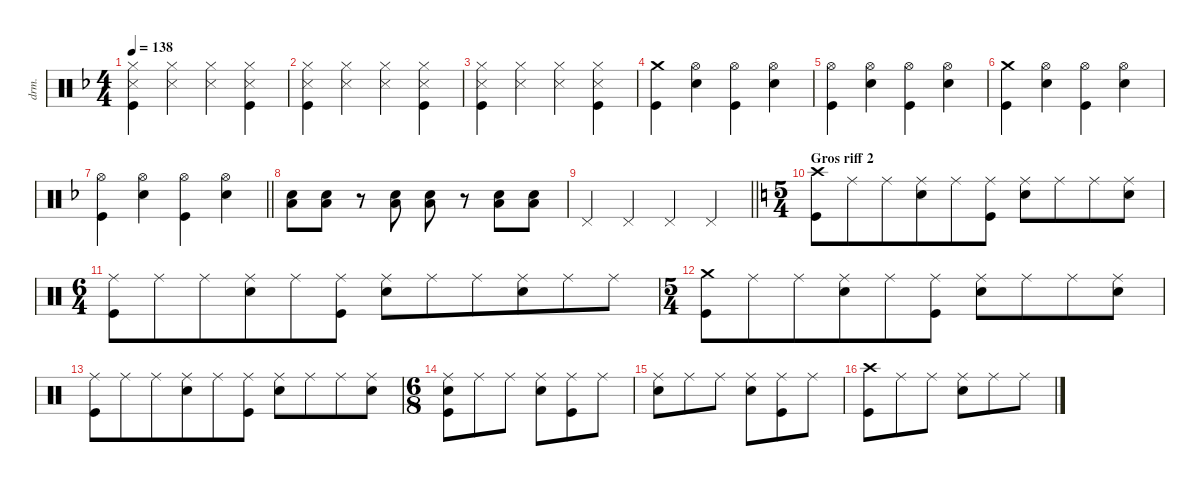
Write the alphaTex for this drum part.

\defaultSystemsLayout 4
\hideDynamics
\bracketExtendMode nobrackets
\track ("Percussions" "drm.") {instrument percussion}
\staff {score}
\articulation defaults
\ts (4 4)
\tempo 138
\clef neutral
\ks dminor
("Hi-Hat (closed)"{acc forcenatural} "Snare (side stick) 3"{acc forcenatural} "Kick (hit)"{acc forcenatural}).4{dy f beam Down} ("Hi-Hat (closed)"{acc forcenatural} "Snare (side stick) 3"{acc forcenatural}).4{beam Down} ("Hi-Hat (closed)"{acc forcenatural} "Snare (side stick) 3"{acc forcenatural}).4{beam Down} ("Hi-Hat (closed)"{acc forcenatural} "Snare (side stick) 3"{acc forcenatural} "Kick (hit)"{acc forcenatural}).4{beam Down} |
("Hi-Hat (closed)"{acc forcenatural} "Snare (side stick) 3"{acc forcenatural} "Kick (hit)"{acc forcenatural}).4{beam Down} ("Hi-Hat (closed)"{acc forcenatural} "Snare (side stick) 3"{acc forcenatural}).4{beam Down} ("Hi-Hat (closed)"{acc forcenatural} "Snare (side stick) 3"{acc forcenatural}).4{beam Down} ("Hi-Hat (closed)"{acc forcenatural} "Snare (side stick) 3"{acc forcenatural} "Kick (hit)"{acc forcenatural}).4{beam Down} |
("Hi-Hat (closed)"{acc forcenatural} "Snare (side stick) 3"{acc forcenatural} "Kick (hit)"{acc forcenatural}).4{beam Down} ("Hi-Hat (closed)"{acc forcenatural} "Snare (side stick) 3"{acc forcenatural}).4{beam Down} ("Hi-Hat (closed)"{acc forcenatural} "Snare (side stick) 3"{acc forcenatural}).4{beam Down} ("Hi-Hat (closed)"{acc forcenatural} "Snare (side stick) 3"{acc forcenatural} "Kick (hit)"{acc forcenatural}).4{beam Down} |
("Crash medium (hit)"{acc forcenatural} "Kick (hit)"{acc forcenatural}).4{beam Down} ("Hi-Hat (open)"{acc forcenatural} "Snare (hit) 2"{acc forcenatural}).4{beam Down} ("Hi-Hat (open)"{acc forcenatural} "Kick (hit)"{acc forcenatural}).4{beam Down} ("Hi-Hat (open)"{acc forcenatural} "Snare (hit) 2"{acc forcenatural}).4{beam Down} |
("Hi-Hat (open)"{acc forcenatural} "Kick (hit)"{acc forcenatural}).4{beam Down} ("Hi-Hat (open)"{acc forcenatural} "Snare (hit) 2"{acc forcenatural}).4{beam Down} ("Hi-Hat (open)"{acc forcenatural} "Kick (hit)"{acc forcenatural}).4{beam Down} ("Hi-Hat (open)"{acc forcenatural} "Snare (hit) 2"{acc forcenatural}).4{beam Down} |
("Crash medium (hit)"{acc forcenatural} "Kick (hit)"{acc forcenatural}).4{beam Down} ("Hi-Hat (open)"{acc forcenatural} "Snare (hit) 2"{acc forcenatural}).4{beam Down} ("Hi-Hat (open)"{acc forcenatural} "Kick (hit)"{acc forcenatural}).4{beam Down} ("Hi-Hat (open)"{acc forcenatural} "Snare (hit) 2"{acc forcenatural}).4{beam Down} |
\barLineRight lightlight
("Hi-Hat (open)"{acc forcenatural} "Kick (hit)"{acc forcenatural}).4{beam Down} ("Hi-Hat (open)"{acc forcenatural} "Snare (hit) 2"{acc forcenatural}).4{beam Down} ("Hi-Hat (open)"{acc forcenatural} "Kick (hit)"{acc forcenatural}).4{beam Down} ("Hi-Hat (open)"{acc forcenatural} "Snare (hit) 2"{acc forcenatural}).4{beam Down} |
("Snare (hit) 2"{acc forcenatural} "Low Tom (hit)"{acc forcenatural}).8{beam Down} ("Snare (hit) 2"{acc forcenatural} "Low Tom (hit)"{acc forcenatural}).8{beam Down} r.8{beam Down} ("Snare (hit) 2"{acc forcenatural} "Low Tom (hit)"{acc forcenatural}).8{beam Down} ("Snare (hit) 2"{acc forcenatural} "Low Tom (hit)"{acc forcenatural}).8{beam Down} r.8{beam Down} ("Snare (hit) 2"{acc forcenatural} "Low Tom (hit)"{acc forcenatural}).8{beam Down} ("Snare (hit) 2"{acc forcenatural} "Low Tom (hit)"{acc forcenatural}).8{beam Down} |
\barLineRight lightlight "Pedal Hi-Hat (hit)"{acc forcenatural}.4{beam Up} "Pedal Hi-Hat (hit)"{acc forcenatural}.4{beam Up} "Pedal Hi-Hat (hit)"{acc forcenatural}.4{beam Up} "Pedal Hi-Hat (hit)"{acc forcenatural}.4{beam Up}
|
\ts (5 4)
\beaming (8 6 4)
\section ("" "Gros riff 2")
\ks aminor
("Crash high (hit)" "Kick (hit)").8{beam Down} "Ride (middle)".8{beam Down} "Ride (middle)".8{beam Down} ("Ride (middle)" "Snare (hit) 2").8{beam Down} "Ride (middle)".8{beam Down} ("Ride (middle)" "Kick (hit)").8{beam Down} ("Ride (middle)" "Snare (hit) 2").8{beam Down} "Ride (middle)".8{beam Down} "Ride (middle)".8{beam Down} ("Ride (middle)" "Snare (hit) 2").8{beam Down} |
\ts (6 4)
\beaming (8 6 6)
("Ride (middle)" "Kick (hit)").8{beam Down} "Ride (middle)".8{beam Down} "Ride (middle)".8{beam Down} ("Ride (middle)" "Snare (hit) 2").8{beam Down} "Ride (middle)".8{beam Down} ("Ride (middle)" "Kick (hit)").8{beam Down} ("Ride (middle)" "Snare (hit) 2").8{beam Down} "Ride (middle)".8{beam Down} "Ride (middle)".8{beam Down} ("Ride (middle)" "Snare (hit) 2").8{beam Down} "Ride (middle)".8{beam Down} "Ride (middle)".8{beam Down} |
\ts (5 4)
\beaming (8 6 4)
("Crash medium (hit)" "Kick (hit)").8{beam Down} "Ride (middle)".8{beam Down} "Ride (middle)".8{beam Down} ("Ride (middle)" "Snare (hit) 2").8{beam Down} "Ride (middle)".8{beam Down} ("Ride (middle)" "Kick (hit)").8{beam Down} ("Ride (middle)" "Snare (hit) 2").8{beam Down} "Ride (middle)".8{beam Down} "Ride (middle)".8{beam Down} ("Ride (middle)" "Snare (hit) 2").8{beam Down} |
("Ride (middle)" "Kick (hit)").8{beam Down} "Ride (middle)".8{beam Down} "Ride (middle)".8{beam Down} ("Ride (middle)" "Snare (hit) 2").8{beam Down} "Ride (middle)".8{beam Down} ("Ride (middle)" "Kick (hit)").8{beam Down} ("Ride (middle)" "Snare (hit) 2").8{beam Down} "Ride (middle)".8{beam Down} "Ride (middle)".8{beam Down} ("Ride (middle)" "Snare (hit) 2").8{beam Down} |
\ts (6 8)
\beaming (8 3 3)
("Ride (middle)" "Snare (hit) 2" "Kick (hit)").8{beam Down} "Ride (middle)".8{beam Down} "Ride (middle)".8{beam Down} ("Ride (middle)" "Snare (hit) 2").8{beam Down} ("Ride (middle)" "Kick (hit)").8{beam Down} "Ride (middle)".8{beam Down} |
("Ride (middle)" "Snare (hit) 2").8{beam Down} "Ride (middle)".8{beam Down} "Ride (middle)".8{beam Down} ("Ride (middle)" "Snare (hit) 2").8{beam Down} ("Ride (middle)" "Kick (hit)").8{beam Down} "Ride (middle)".8{beam Down} |
("Crash high (hit)" "Kick (hit)").8{beam Down} "Ride (middle)".8{beam Down} "Ride (middle)".8{beam Down} ("Ride (middle)" "Snare (hit) 2").8{beam Down} "Ride (middle)".8{beam Down} "Ride (middle)".8{beam Down}
